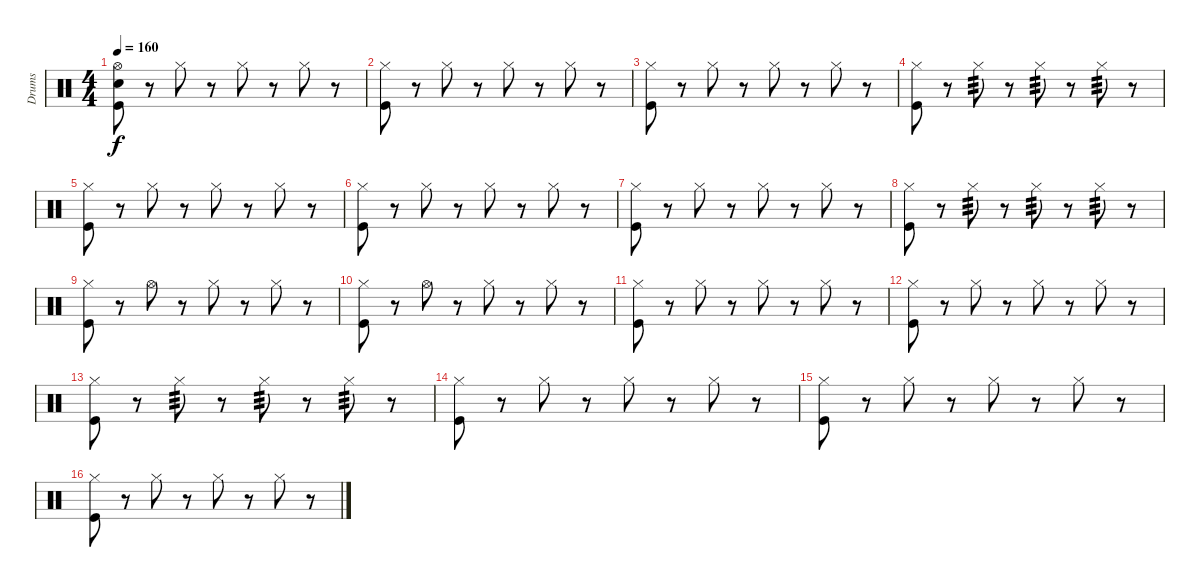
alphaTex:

\track ("Drums" "Drums") {instrument percussion}
\staff {score}
\articulation defaults
\ts (4 4)
\tempo 160
\clef neutral
\ks c
("Hi-Hat (open)" "Snare (hit) 2" "Kick (hit)").8{dy f} r.8 "Hi-Hat (closed)".8 r.8 "Hi-Hat (closed)".8 r.8 "Hi-Hat (closed)".8 r.8 |
("Hi-Hat (closed)" "Kick (hit)").8 r.8 "Hi-Hat (closed)".8 r.8 "Hi-Hat (closed)".8 r.8 "Hi-Hat (closed)".8 r.8 |
("Hi-Hat (closed)" "Kick (hit)").8 r.8 "Hi-Hat (closed)".8 r.8 "Hi-Hat (closed)".8 r.8 "Hi-Hat (closed)".8 r.8 |
("Hi-Hat (closed)" "Kick (hit)").8 r.8 "Hi-Hat (closed)".8{tp 3} r.8 "Hi-Hat (closed)".8{tp 3} r.8 "Hi-Hat (closed)".8{tp 3} r.8 |
("Hi-Hat (closed)" "Kick (hit)").8 r.8 "Hi-Hat (closed)".8 r.8 "Hi-Hat (closed)".8 r.8 "Hi-Hat (closed)".8 r.8 |
("Hi-Hat (closed)" "Kick (hit)").8 r.8 "Hi-Hat (closed)".8 r.8 "Hi-Hat (closed)".8 r.8 "Hi-Hat (closed)".8 r.8 |
("Hi-Hat (closed)" "Kick (hit)").8 r.8 "Hi-Hat (closed)".8 r.8 "Hi-Hat (closed)".8 r.8 "Hi-Hat (closed)".8 r.8 |
("Hi-Hat (closed)" "Kick (hit)").8 r.8 "Hi-Hat (closed)".8{tp 3} r.8 "Hi-Hat (closed)".8{tp 3} r.8 "Hi-Hat (closed)".8{tp 3} r.8 |
("Hi-Hat (closed)" "Kick (hit)").8 r.8 "Hi-Hat (open)".8 r.8 "Hi-Hat (closed)".8 r.8 "Hi-Hat (closed)".8 r.8 |
("Hi-Hat (closed)" "Kick (hit)").8 r.8 "Hi-Hat (open)".8 r.8 "Hi-Hat (closed)".8 r.8 "Hi-Hat (closed)".8 r.8 |
("Hi-Hat (closed)" "Kick (hit)").8 r.8 "Hi-Hat (closed)".8 r.8 "Hi-Hat (closed)".8 r.8 "Hi-Hat (closed)".8 r.8 |
("Hi-Hat (closed)" "Kick (hit)").8 r.8 "Hi-Hat (closed)".8 r.8 "Hi-Hat (closed)".8 r.8 "Hi-Hat (closed)".8 r.8 |
("Hi-Hat (closed)" "Kick (hit)").8 r.8 "Hi-Hat (closed)".8{tp 3} r.8 "Hi-Hat (closed)".8{tp 3} r.8 "Hi-Hat (closed)".8{tp 3} r.8 |
("Hi-Hat (closed)" "Kick (hit)").8 r.8 "Hi-Hat (closed)".8 r.8 "Hi-Hat (closed)".8 r.8 "Hi-Hat (closed)".8 r.8 |
("Hi-Hat (closed)" "Kick (hit)").8 r.8 "Hi-Hat (closed)".8 r.8 "Hi-Hat (closed)".8 r.8 "Hi-Hat (closed)".8 r.8 |
("Hi-Hat (closed)" "Kick (hit)").8 r.8 "Hi-Hat (closed)".8 r.8 "Hi-Hat (closed)".8 r.8 "Hi-Hat (closed)".8 r.8
